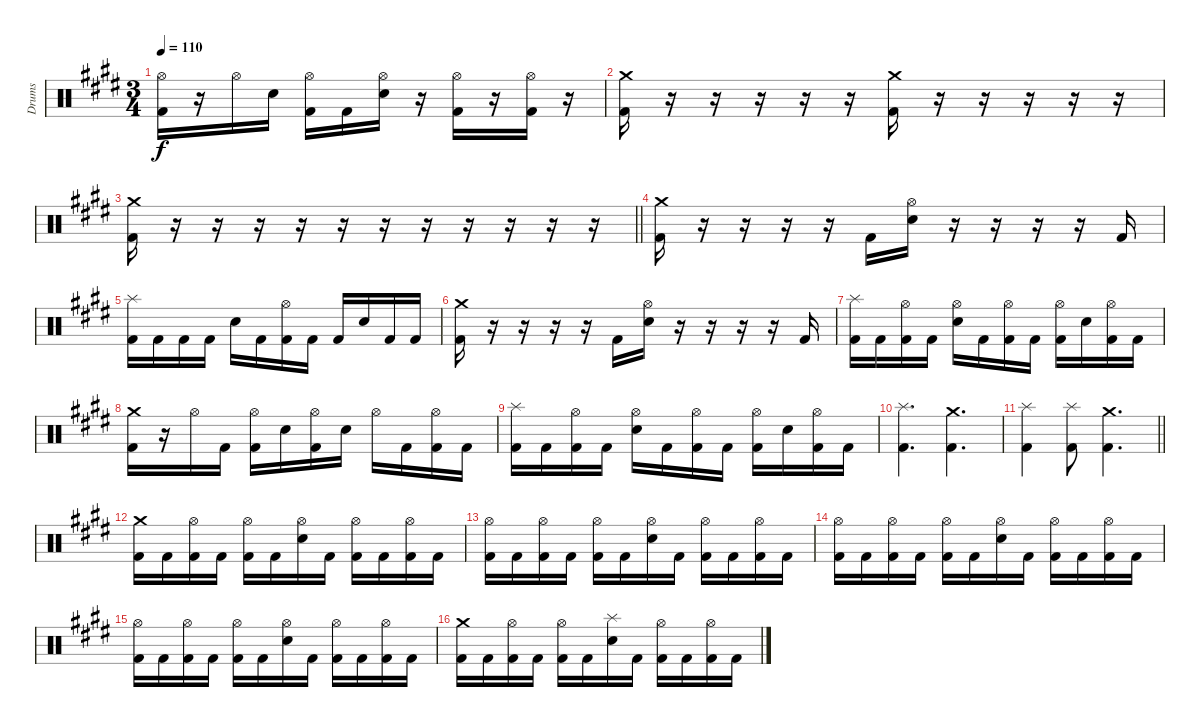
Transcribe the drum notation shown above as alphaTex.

\track ("Drums" "Drums") {instrument percussion}
\staff {score}
\articulation defaults
\ts (3 4)
\tempo 110
\clef neutral
\ks c#minor
("Kick (hit) 2" "Hi-Hat (open)").16{dy f} r.16 "Hi-Hat (open)".16 "Electric Snare (hit)".16 ("Kick (hit) 2" "Hi-Hat (open)").16 "Kick (hit) 2".16 ("Electric Snare (hit)" "Hi-Hat (open)").16 r.16 ("Kick (hit) 2" "Hi-Hat (open)").16 r.16 ("Kick (hit) 2" "Hi-Hat (open)").16 r.16 |
("Kick (hit) 2" "Crash medium (hit)").16 r.16 r.16 r.16 r.16 r.16 ("Kick (hit) 2" "Crash medium (hit)").16 r.16 r.16 r.16 r.16 r.16 |
\barLineRight lightlight
("Kick (hit) 2" "Crash medium (hit)").16 r.16 r.16 r.16 r.16 r.16 r.16 r.16 r.16 r.16 r.16 r.16 |
("Kick (hit) 2" "Crash medium (hit)").16 r.16 r.16 r.16 r.16 "Kick (hit) 2".16 ("Electric Snare (hit)" "Hi-Hat (open)").16 r.16 r.16 r.16 r.16 "Kick (hit) 2".16 |
("Kick (hit) 2" "Splash (hit)").16 "Kick (hit) 2".16 "Kick (hit) 2".16 "Kick (hit) 2".16 "Electric Snare (hit)".16 "Kick (hit) 2".16 ("Kick (hit) 2" "Hi-Hat (open)").16 "Kick (hit) 2".16 "Kick (hit) 2".16 "Electric Snare (hit)".16 "Kick (hit) 2".16 "Kick (hit) 2".16 |
("Kick (hit) 2" "Crash medium (hit)").16 r.16 r.16 r.16 r.16 "Kick (hit) 2".16 ("Electric Snare (hit)" "Hi-Hat (open)").16 r.16 r.16 r.16 r.16 "Kick (hit) 2".16 |
("Kick (hit) 2" "Splash (hit)").16 "Kick (hit) 2".16 ("Kick (hit) 2" "Hi-Hat (open)").16 "Kick (hit) 2".16 ("Electric Snare (hit)" "Hi-Hat (open)").16 "Kick (hit) 2".16 ("Kick (hit) 2" "Hi-Hat (open)").16 "Kick (hit) 2".16 ("Kick (hit) 2" "Hi-Hat (open)").16 "Electric Snare (hit)".16 ("Kick (hit) 2" "Hi-Hat (open)").16 "Kick (hit) 2".16 |
("Kick (hit) 2" "Crash medium (hit)").16 r.16 "Hi-Hat (open)".16 "Kick (hit) 2".16 ("Kick (hit) 2" "Hi-Hat (open)").16 "Electric Snare (hit)".16 ("Kick (hit) 2" "Hi-Hat (open)").16 "Electric Snare (hit)".16 "Hi-Hat (open)".16 "Kick (hit) 2".16 ("Kick (hit) 2" "Hi-Hat (open)").16 "Kick (hit) 2".16 |
("Kick (hit) 2" "Splash (hit)").16 "Kick (hit) 2".16 ("Kick (hit) 2" "Hi-Hat (open)").16 "Kick (hit) 2".16 ("Electric Snare (hit)" "Hi-Hat (open)").16 "Kick (hit) 2".16 ("Kick (hit) 2" "Hi-Hat (open)").16 "Kick (hit) 2".16 ("Kick (hit) 2" "Hi-Hat (open)").16 "Electric Snare (hit)".16 ("Kick (hit) 2" "Hi-Hat (open)").16 "Kick (hit) 2".16 |
("Kick (hit) 2" "Splash (hit)").4{d} ("Kick (hit) 2" "Crash medium (hit)").4{d} |
\barLineRight lightlight
("Kick (hit) 2" "Splash (hit)").4 ("Kick (hit) 2" "Splash (hit)").8 ("Kick (hit) 2" "Crash medium (hit)").4{d} |
\ks e
("Kick (hit) 2" "Crash medium (hit)").16 "Kick (hit) 2".16 ("Kick (hit) 2" "Hi-Hat (open)").16 "Kick (hit) 2".16 ("Kick (hit) 2" "Hi-Hat (open)").16 "Kick (hit) 2".16 ("Electric Snare (hit)" "Hi-Hat (open)").16 "Kick (hit) 2".16 ("Kick (hit) 2" "Hi-Hat (open)").16 "Kick (hit) 2".16 ("Kick (hit) 2" "Hi-Hat (open)").16 "Kick (hit) 2".16 |
\ks c#minor
("Kick (hit) 2" "Hi-Hat (open)").16 "Kick (hit) 2".16 ("Kick (hit) 2" "Hi-Hat (open)").16 "Kick (hit) 2".16 ("Kick (hit) 2" "Hi-Hat (open)").16 "Kick (hit) 2".16 ("Electric Snare (hit)" "Hi-Hat (open)").16 "Kick (hit) 2".16 ("Kick (hit) 2" "Hi-Hat (open)").16 "Kick (hit) 2".16 ("Kick (hit) 2" "Hi-Hat (open)").16 "Kick (hit) 2".16 |
("Kick (hit) 2" "Hi-Hat (open)").16 "Kick (hit) 2".16 ("Kick (hit) 2" "Hi-Hat (open)").16 "Kick (hit) 2".16 ("Kick (hit) 2" "Hi-Hat (open)").16 "Kick (hit) 2".16 ("Electric Snare (hit)" "Hi-Hat (open)").16 "Kick (hit) 2".16 ("Kick (hit) 2" "Hi-Hat (open)").16 "Kick (hit) 2".16 ("Kick (hit) 2" "Hi-Hat (open)").16 "Kick (hit) 2".16 |
("Kick (hit) 2" "Hi-Hat (open)").16 "Kick (hit) 2".16 ("Kick (hit) 2" "Hi-Hat (open)").16 "Kick (hit) 2".16 ("Kick (hit) 2" "Hi-Hat (open)").16 "Kick (hit) 2".16 ("Electric Snare (hit)" "Hi-Hat (open)").16 "Kick (hit) 2".16 ("Kick (hit) 2" "Hi-Hat (open)").16 "Kick (hit) 2".16 ("Kick (hit) 2" "Hi-Hat (open)").16 "Kick (hit) 2".16 |
\ks e
("Kick (hit) 2" "Crash medium (hit)").16 "Kick (hit) 2".16 ("Kick (hit) 2" "Hi-Hat (open)").16 "Kick (hit) 2".16 ("Kick (hit) 2" "Hi-Hat (open)").16 "Kick (hit) 2".16 ("Electric Snare (hit)" "Splash (hit)").16 "Kick (hit) 2".16 ("Kick (hit) 2" "Hi-Hat (open)").16 "Kick (hit) 2".16 ("Kick (hit) 2" "Hi-Hat (open)").16 "Kick (hit) 2".16
